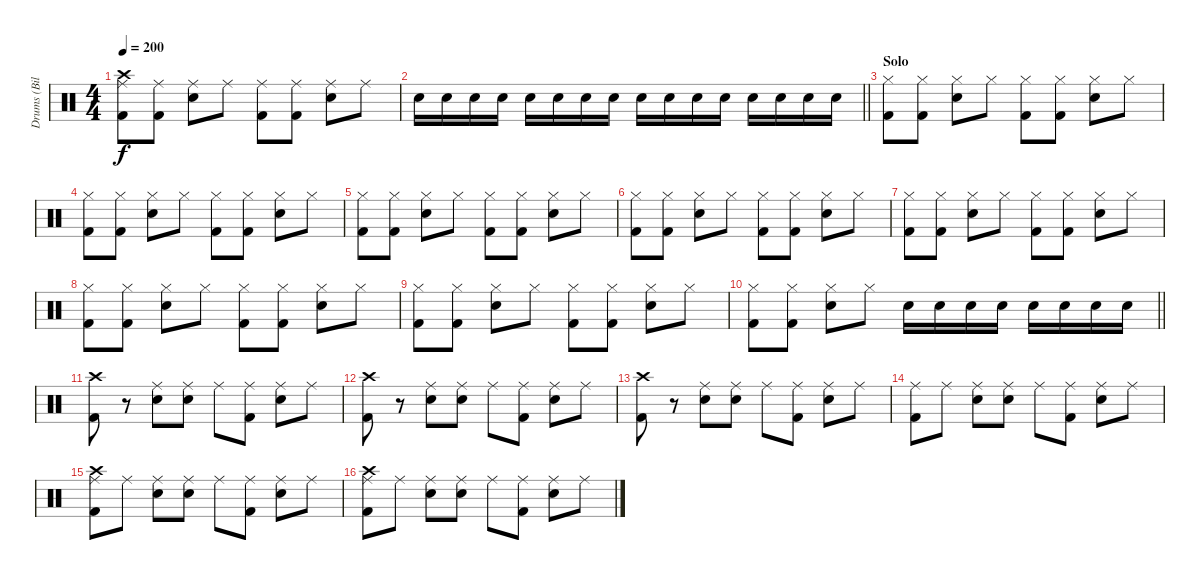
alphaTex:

\track ("Drums (Bill Stevenson)" "Drums (Bil") {instrument percussion}
\staff {score}
\articulation defaults
\ts (4 4)
\tempo 200
\clef neutral
\ks c
("Ride (middle)" "Crash high (hit)" "Kick (hit) 2").8{dy f} ("Ride (middle)" "Kick (hit) 2").8 ("Ride (middle)" "Electric Snare (hit)").8 "Ride (middle)".8 ("Ride (middle)" "Kick (hit) 2").8 ("Ride (middle)" "Kick (hit) 2").8 ("Ride (middle)" "Electric Snare (hit)").8 "Ride (middle)".8 |
\barLineRight lightlight "Electric Snare (hit)".16 "Electric Snare (hit)".16 "Electric Snare (hit)".16 "Electric Snare (hit)".16 "Electric Snare (hit)".16 "Electric Snare (hit)".16 "Electric Snare (hit)".16 "Electric Snare (hit)".16 "Electric Snare (hit)".16 "Electric Snare (hit)".16 "Electric Snare (hit)".16 "Electric Snare (hit)".16 "Electric Snare (hit)".16 "Electric Snare (hit)".16 "Electric Snare (hit)".16 "Electric Snare (hit)".16
|
\section ("" "Solo")
("Hi-Hat (closed)" "Kick (hit) 2").8 ("Hi-Hat (closed)" "Kick (hit) 2").8 ("Hi-Hat (closed)" "Electric Snare (hit)").8 "Hi-Hat (closed)".8 ("Hi-Hat (closed)" "Kick (hit) 2").8 ("Hi-Hat (closed)" "Kick (hit) 2").8 ("Hi-Hat (closed)" "Electric Snare (hit)").8 "Hi-Hat (closed)".8 |
("Hi-Hat (closed)" "Kick (hit) 2").8 ("Hi-Hat (closed)" "Kick (hit) 2").8 ("Hi-Hat (closed)" "Electric Snare (hit)").8 "Hi-Hat (closed)".8 ("Hi-Hat (closed)" "Kick (hit) 2").8 ("Hi-Hat (closed)" "Kick (hit) 2").8 ("Hi-Hat (closed)" "Electric Snare (hit)").8 "Hi-Hat (closed)".8 |
("Hi-Hat (closed)" "Kick (hit) 2").8 ("Hi-Hat (closed)" "Kick (hit) 2").8 ("Hi-Hat (closed)" "Electric Snare (hit)").8 "Hi-Hat (closed)".8 ("Hi-Hat (closed)" "Kick (hit) 2").8 ("Hi-Hat (closed)" "Kick (hit) 2").8 ("Hi-Hat (closed)" "Electric Snare (hit)").8 "Hi-Hat (closed)".8 |
("Hi-Hat (closed)" "Kick (hit) 2").8 ("Hi-Hat (closed)" "Kick (hit) 2").8 ("Hi-Hat (closed)" "Electric Snare (hit)").8 "Hi-Hat (closed)".8 ("Hi-Hat (closed)" "Kick (hit) 2").8 ("Hi-Hat (closed)" "Kick (hit) 2").8 ("Hi-Hat (closed)" "Electric Snare (hit)").8 "Hi-Hat (closed)".8 |
("Hi-Hat (closed)" "Kick (hit) 2").8 ("Hi-Hat (closed)" "Kick (hit) 2").8 ("Hi-Hat (closed)" "Electric Snare (hit)").8 "Hi-Hat (closed)".8 ("Hi-Hat (closed)" "Kick (hit) 2").8 ("Hi-Hat (closed)" "Kick (hit) 2").8 ("Hi-Hat (closed)" "Electric Snare (hit)").8 "Hi-Hat (closed)".8 |
("Hi-Hat (closed)" "Kick (hit) 2").8 ("Hi-Hat (closed)" "Kick (hit) 2").8 ("Hi-Hat (closed)" "Electric Snare (hit)").8 "Hi-Hat (closed)".8 ("Hi-Hat (closed)" "Kick (hit) 2").8 ("Hi-Hat (closed)" "Kick (hit) 2").8 ("Hi-Hat (closed)" "Electric Snare (hit)").8 "Hi-Hat (closed)".8 |
("Hi-Hat (closed)" "Kick (hit) 2").8 ("Hi-Hat (closed)" "Kick (hit) 2").8 ("Hi-Hat (closed)" "Electric Snare (hit)").8 "Hi-Hat (closed)".8 ("Hi-Hat (closed)" "Kick (hit) 2").8 ("Hi-Hat (closed)" "Kick (hit) 2").8 ("Hi-Hat (closed)" "Electric Snare (hit)").8 "Hi-Hat (closed)".8 |
\barLineRight lightlight
("Hi-Hat (closed)" "Kick (hit) 2").8 ("Hi-Hat (closed)" "Kick (hit) 2").8 ("Hi-Hat (closed)" "Electric Snare (hit)").8 "Hi-Hat (closed)".8 "Electric Snare (hit)".16 "Electric Snare (hit)".16 "Electric Snare (hit)".16 "Electric Snare (hit)".16 "Electric Snare (hit)".16 "Electric Snare (hit)".16 "Electric Snare (hit)".16 "Electric Snare (hit)".16 |
("Crash high (hit)" "Kick (hit) 2").8 r.8 ("Ride (middle)" "Electric Snare (hit)").8 ("Ride (middle)" "Electric Snare (hit)").8 "Ride (middle)".8 ("Ride (middle)" "Kick (hit) 2").8 ("Ride (middle)" "Electric Snare (hit)").8 "Ride (middle)".8 |
("Crash high (hit)" "Kick (hit) 2").8 r.8 ("Ride (middle)" "Electric Snare (hit)").8 ("Ride (middle)" "Electric Snare (hit)").8 "Ride (middle)".8 ("Ride (middle)" "Kick (hit) 2").8 ("Ride (middle)" "Electric Snare (hit)").8 "Ride (middle)".8 |
("Crash high (hit)" "Kick (hit) 2").8 r.8 ("Ride (middle)" "Electric Snare (hit)").8 ("Ride (middle)" "Electric Snare (hit)").8 "Ride (middle)".8 ("Ride (middle)" "Kick (hit) 2").8 ("Ride (middle)" "Electric Snare (hit)").8 "Ride (middle)".8 |
("Ride (middle)" "Kick (hit) 2").8 "Ride (middle)".8 ("Ride (middle)" "Electric Snare (hit)").8 ("Ride (middle)" "Electric Snare (hit)").8 "Ride (middle)".8 ("Ride (middle)" "Kick (hit) 2").8 ("Ride (middle)" "Electric Snare (hit)").8 "Ride (middle)".8 |
("Ride (middle)" "Crash high (hit)" "Kick (hit) 2").8 "Ride (middle)".8 ("Ride (middle)" "Electric Snare (hit)").8 ("Ride (middle)" "Electric Snare (hit)").8 "Ride (middle)".8 ("Ride (middle)" "Kick (hit) 2").8 ("Ride (middle)" "Electric Snare (hit)").8 "Ride (middle)".8 |
("Ride (middle)" "Crash high (hit)" "Kick (hit) 2").8 "Ride (middle)".8 ("Ride (middle)" "Electric Snare (hit)").8 ("Ride (middle)" "Electric Snare (hit)").8 "Ride (middle)".8 ("Ride (middle)" "Kick (hit) 2").8 ("Ride (middle)" "Electric Snare (hit)").8 "Ride (middle)".8
